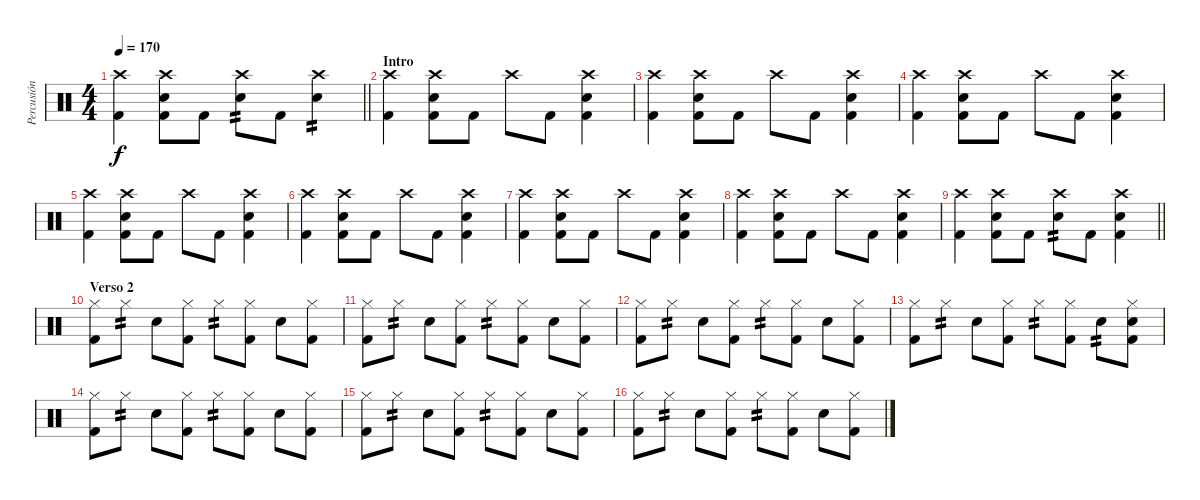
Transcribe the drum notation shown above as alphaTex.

\track ("Percusión" "Percusión") {instrument percussion}
\staff {score}
\articulation defaults
\ts (4 4)
\tempo 170
\clef neutral
\barLineRight lightlight
\ks c
("Crash high (hit)" "Kick (hit) 2").4{dy f} ("Crash high (hit)" "Electric Snare (hit)" "Kick (hit) 2").8 "Kick (hit) 2".8 ("Crash high (hit)" "Electric Snare (hit)").8{tp 2} "Kick (hit) 2".8 ("Crash high (hit)" "Electric Snare (hit)").4{tp 2} |
\section ("" "Intro")
("Crash high (hit)" "Kick (hit) 2").4 ("Crash high (hit)" "Electric Snare (hit)" "Kick (hit) 2").8 "Kick (hit) 2".8 "Crash high (hit)".8 "Kick (hit) 2".8 ("Crash high (hit)" "Electric Snare (hit)" "Kick (hit) 2").4 |
("Crash high (hit)" "Kick (hit) 2").4 ("Crash high (hit)" "Electric Snare (hit)" "Kick (hit) 2").8 "Kick (hit) 2".8 "Crash high (hit)".8 "Kick (hit) 2".8 ("Crash high (hit)" "Electric Snare (hit)" "Kick (hit) 2").4 |
("Crash high (hit)" "Kick (hit) 2").4 ("Crash high (hit)" "Electric Snare (hit)" "Kick (hit) 2").8 "Kick (hit) 2".8 "Crash high (hit)".8 "Kick (hit) 2".8 ("Crash high (hit)" "Electric Snare (hit)" "Kick (hit) 2").4 |
("Crash high (hit)" "Kick (hit) 2").4 ("Crash high (hit)" "Electric Snare (hit)" "Kick (hit) 2").8 "Kick (hit) 2".8 "Crash high (hit)".8 "Kick (hit) 2".8 ("Crash high (hit)" "Electric Snare (hit)" "Kick (hit) 2").4 |
("Crash high (hit)" "Kick (hit) 2").4 ("Crash high (hit)" "Electric Snare (hit)" "Kick (hit) 2").8 "Kick (hit) 2".8 "Crash high (hit)".8 "Kick (hit) 2".8 ("Crash high (hit)" "Electric Snare (hit)" "Kick (hit) 2").4 |
("Crash high (hit)" "Kick (hit) 2").4 ("Crash high (hit)" "Electric Snare (hit)" "Kick (hit) 2").8 "Kick (hit) 2".8 "Crash high (hit)".8 "Kick (hit) 2".8 ("Crash high (hit)" "Electric Snare (hit)" "Kick (hit) 2").4 |
("Crash high (hit)" "Kick (hit) 2").4 ("Crash high (hit)" "Electric Snare (hit)" "Kick (hit) 2").8 "Kick (hit) 2".8 "Crash high (hit)".8 "Kick (hit) 2".8 ("Crash high (hit)" "Electric Snare (hit)" "Kick (hit) 2").4 |
\barLineRight lightlight
("Crash high (hit)" "Kick (hit) 2").4 ("Crash high (hit)" "Electric Snare (hit)" "Kick (hit) 2").8 "Kick (hit) 2".8 ("Crash high (hit)" "Electric Snare (hit)").8{tp 2} "Kick (hit) 2".8 ("Crash high (hit)" "Electric Snare (hit)" "Kick (hit) 2").4 |
\section ("" "Verso 2")
("Hi-Hat (closed)" "Kick (hit) 2").8 "Hi-Hat (closed)".8{tp 2} "Electric Snare (hit)".8 ("Hi-Hat (closed)" "Kick (hit) 2").8 "Hi-Hat (closed)".8{tp 2} ("Hi-Hat (closed)" "Kick (hit) 2").8 "Electric Snare (hit)".8 ("Hi-Hat (closed)" "Kick (hit) 2").8 |
("Hi-Hat (closed)" "Kick (hit) 2").8 "Hi-Hat (closed)".8{tp 2} "Electric Snare (hit)".8 ("Hi-Hat (closed)" "Kick (hit) 2").8 "Hi-Hat (closed)".8{tp 2} ("Hi-Hat (closed)" "Kick (hit) 2").8 "Electric Snare (hit)".8 ("Hi-Hat (closed)" "Kick (hit) 2").8 |
("Hi-Hat (closed)" "Kick (hit) 2").8 "Hi-Hat (closed)".8{tp 2} "Electric Snare (hit)".8 ("Hi-Hat (closed)" "Kick (hit) 2").8 "Hi-Hat (closed)".8{tp 2} ("Hi-Hat (closed)" "Kick (hit) 2").8 "Electric Snare (hit)".8 ("Hi-Hat (closed)" "Kick (hit) 2").8 |
("Hi-Hat (closed)" "Kick (hit) 2").8 "Hi-Hat (closed)".8{tp 2} "Electric Snare (hit)".8 ("Hi-Hat (closed)" "Kick (hit) 2").8 "Hi-Hat (closed)".8{tp 2} ("Hi-Hat (closed)" "Kick (hit) 2").8 "Electric Snare (hit)".8{tp 2} ("Hi-Hat (closed)" "Electric Snare (hit)" "Kick (hit) 2").8 |
("Hi-Hat (closed)" "Kick (hit) 2").8 "Hi-Hat (closed)".8{tp 2} "Electric Snare (hit)".8 ("Hi-Hat (closed)" "Kick (hit) 2").8 "Hi-Hat (closed)".8{tp 2} ("Hi-Hat (closed)" "Kick (hit) 2").8 "Electric Snare (hit)".8 ("Hi-Hat (closed)" "Kick (hit) 2").8 |
("Hi-Hat (closed)" "Kick (hit) 2").8 "Hi-Hat (closed)".8{tp 2} "Electric Snare (hit)".8 ("Hi-Hat (closed)" "Kick (hit) 2").8 "Hi-Hat (closed)".8{tp 2} ("Hi-Hat (closed)" "Kick (hit) 2").8 "Electric Snare (hit)".8 ("Hi-Hat (closed)" "Kick (hit) 2").8 |
("Hi-Hat (closed)" "Kick (hit) 2").8 "Hi-Hat (closed)".8{tp 2} "Electric Snare (hit)".8 ("Hi-Hat (closed)" "Kick (hit) 2").8 "Hi-Hat (closed)".8{tp 2} ("Hi-Hat (closed)" "Kick (hit) 2").8 "Electric Snare (hit)".8 ("Hi-Hat (closed)" "Kick (hit) 2").8
